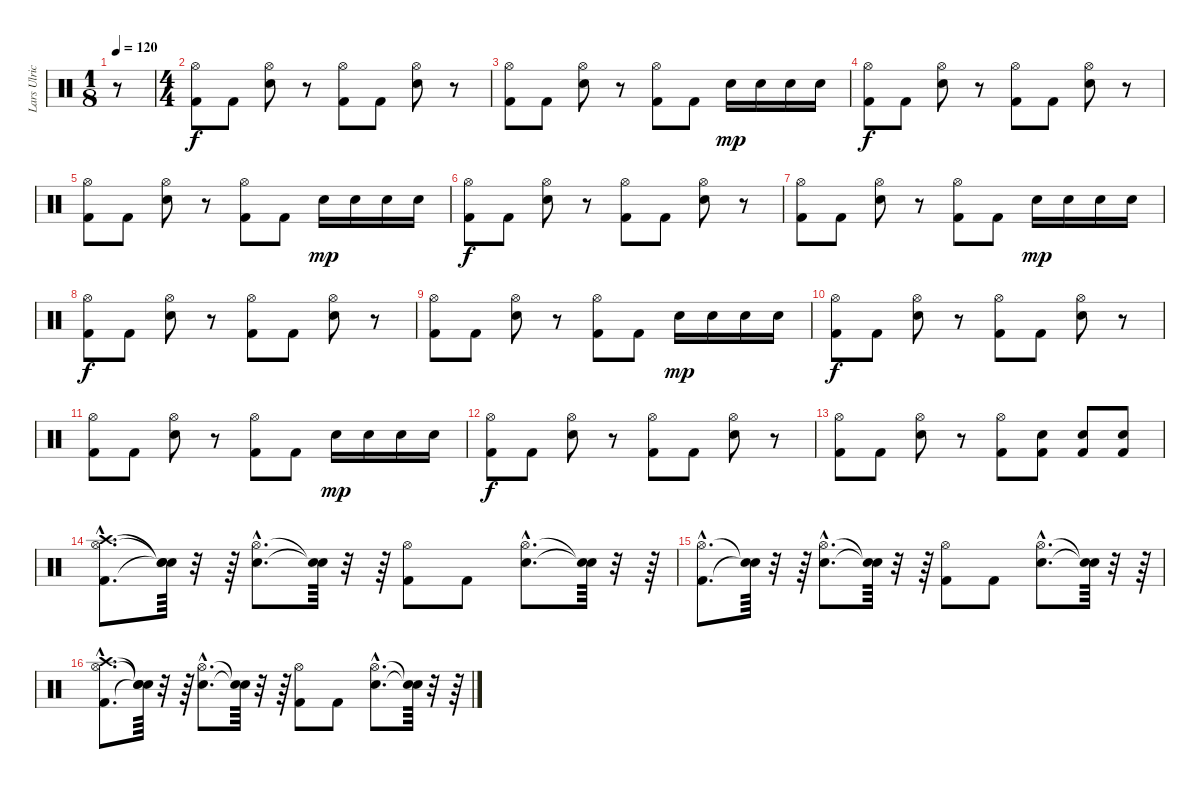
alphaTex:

\track ("Lars Ulrich" "Lars Ulric") {instrument percussion}
\staff {score}
\articulation defaults
\ts (1 8)
\tempo 120
\clef neutral
\ks c
r.8{dy f} |
\ts (4 4)
("Kick (hit) 2" "Hi-Hat (open)").8 "Kick (hit) 2".8 ("Snare (hit) 2" "Hi-Hat (open)").8 r.8 ("Kick (hit) 2" "Hi-Hat (open)").8 "Kick (hit) 2".8 ("Snare (hit) 2" "Hi-Hat (open)").8 r.8 |
("Kick (hit) 2" "Hi-Hat (open)").8 "Kick (hit) 2".8 ("Snare (hit) 2" "Hi-Hat (open)").8 r.8 ("Kick (hit) 2" "Hi-Hat (open)").8 "Kick (hit) 2".8 "Snare (hit) 2".16{dy mp} "Snare (hit) 2".16 "Snare (hit) 2".16 "Snare (hit) 2".16 |
("Kick (hit) 2" "Hi-Hat (open)").8{dy f} "Kick (hit) 2".8 ("Snare (hit) 2" "Hi-Hat (open)").8 r.8 ("Kick (hit) 2" "Hi-Hat (open)").8 "Kick (hit) 2".8 ("Snare (hit) 2" "Hi-Hat (open)").8 r.8 |
("Kick (hit) 2" "Hi-Hat (open)").8 "Kick (hit) 2".8 ("Snare (hit) 2" "Hi-Hat (open)").8 r.8 ("Kick (hit) 2" "Hi-Hat (open)").8 "Kick (hit) 2".8 "Snare (hit) 2".16{dy mp} "Snare (hit) 2".16 "Snare (hit) 2".16 "Snare (hit) 2".16 |
("Kick (hit) 2" "Hi-Hat (open)").8{dy f} "Kick (hit) 2".8 ("Snare (hit) 2" "Hi-Hat (open)").8 r.8 ("Kick (hit) 2" "Hi-Hat (open)").8 "Kick (hit) 2".8 ("Snare (hit) 2" "Hi-Hat (open)").8 r.8 |
("Kick (hit) 2" "Hi-Hat (open)").8 "Kick (hit) 2".8 ("Snare (hit) 2" "Hi-Hat (open)").8 r.8 ("Kick (hit) 2" "Hi-Hat (open)").8 "Kick (hit) 2".8 "Snare (hit) 2".16{dy mp} "Snare (hit) 2".16 "Snare (hit) 2".16 "Snare (hit) 2".16 |
("Kick (hit) 2" "Hi-Hat (open)").8{dy f} "Kick (hit) 2".8 ("Snare (hit) 2" "Hi-Hat (open)").8 r.8 ("Kick (hit) 2" "Hi-Hat (open)").8 "Kick (hit) 2".8 ("Snare (hit) 2" "Hi-Hat (open)").8 r.8 |
("Kick (hit) 2" "Hi-Hat (open)").8 "Kick (hit) 2".8 ("Snare (hit) 2" "Hi-Hat (open)").8 r.8 ("Kick (hit) 2" "Hi-Hat (open)").8 "Kick (hit) 2".8 "Snare (hit) 2".16{dy mp} "Snare (hit) 2".16 "Snare (hit) 2".16 "Snare (hit) 2".16 |
("Kick (hit) 2" "Hi-Hat (open)").8{dy f} "Kick (hit) 2".8 ("Snare (hit) 2" "Hi-Hat (open)").8 r.8 ("Kick (hit) 2" "Hi-Hat (open)").8 "Kick (hit) 2".8 ("Snare (hit) 2" "Hi-Hat (open)").8 r.8 |
("Kick (hit) 2" "Hi-Hat (open)").8 "Kick (hit) 2".8 ("Snare (hit) 2" "Hi-Hat (open)").8 r.8 ("Kick (hit) 2" "Hi-Hat (open)").8 "Kick (hit) 2".8 "Snare (hit) 2".16{dy mp} "Snare (hit) 2".16 "Snare (hit) 2".16 "Snare (hit) 2".16 |
("Kick (hit) 2" "Hi-Hat (open)").8{dy f} "Kick (hit) 2".8 ("Snare (hit) 2" "Hi-Hat (open)").8 r.8 ("Kick (hit) 2" "Hi-Hat (open)").8 "Kick (hit) 2".8 ("Snare (hit) 2" "Hi-Hat (open)").8 r.8 |
("Kick (hit) 2" "Hi-Hat (open)").8 "Kick (hit) 2".8 ("Snare (hit) 2" "Hi-Hat (open)").8 r.8 ("Kick (hit) 2" "Hi-Hat (open)").8 ("Kick (hit) 2" "Snare (hit) 2").8 ("Kick (hit) 2" "Snare (hit) 2").8 ("Kick (hit) 2" "Snare (hit) 2").8 |
("Kick (hit) 2"{hac} "Hi-Hat (open)"{hac} "Crash high (hit)"{hac}).8{d} ("Snare (hit)"{t} "Snare (hit)"{t} "Snare (hit)"{t}).64 r.32 r.64 ("Snare (hit) 2"{hac} "Hi-Hat (open)"{hac}).8{d} ("Snare (hit)"{t} "Snare (hit)"{t}).64 r.32 r.64 ("Kick (hit) 2" "Hi-Hat (open)").8 "Kick (hit) 2".8 ("Snare (hit) 2"{hac} "Hi-Hat (open)"{hac}).8{d} ("Snare (hit)"{t} "Snare (hit)"{t}).64 r.32 r.64 |
("Kick (hit) 2"{hac} "Hi-Hat (open)"{hac}).8{d} ("Snare (hit)"{t} "Snare (hit)"{t}).64 r.32 r.64 ("Snare (hit) 2"{hac} "Hi-Hat (open)"{hac}).8{d} ("Snare (hit)"{t} "Snare (hit)"{t}).64 r.32 r.64 ("Kick (hit) 2" "Hi-Hat (open)").8 "Kick (hit) 2".8 ("Snare (hit) 2"{hac} "Hi-Hat (open)"{hac}).8{d} ("Snare (hit)"{t} "Snare (hit)"{t}).64 r.32 r.64 |
("Kick (hit) 2"{hac} "Hi-Hat (open)"{hac} "Crash high (hit)"{hac}).8{d} ("Snare (hit)"{t} "Snare (hit)"{t} "Snare (hit)"{t}).64 r.32 r.64 ("Snare (hit) 2"{hac} "Hi-Hat (open)"{hac}).8{d} ("Snare (hit)"{t} "Snare (hit)"{t}).64 r.32 r.64 ("Kick (hit) 2" "Hi-Hat (open)").8 "Kick (hit) 2".8 ("Snare (hit) 2"{hac} "Hi-Hat (open)"{hac}).8{d} ("Snare (hit)"{t} "Snare (hit)"{t}).64 r.32 r.64
